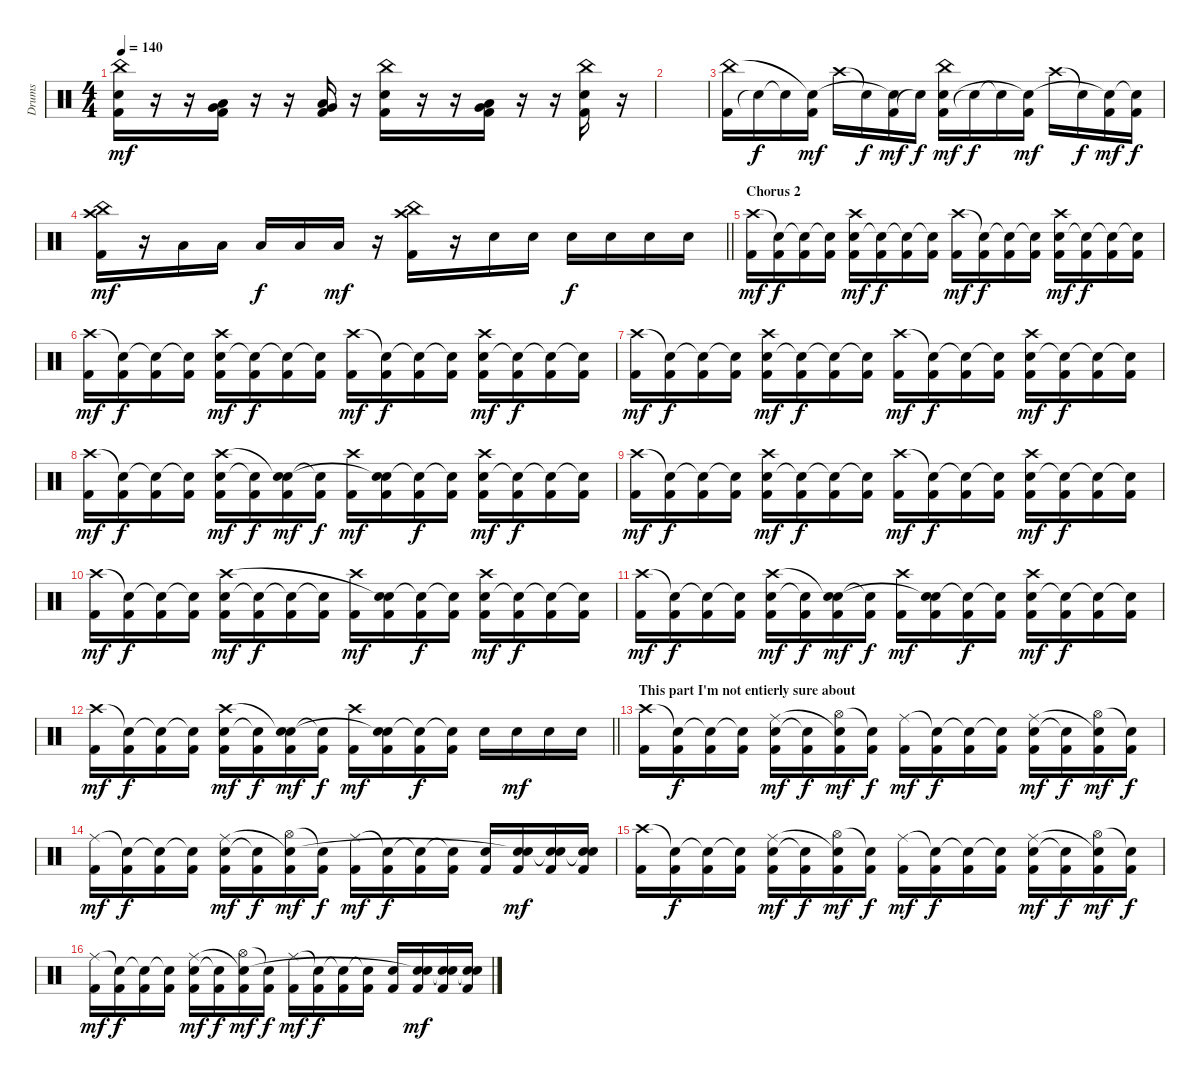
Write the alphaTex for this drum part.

\track ("Drums" "Drums") {instrument percussion}
\staff {score}
\articulation defaults
\ts (4 4)
\tempo 140
\clef neutral
\ks c
("Kick (hit) 2" "Snare (hit) 2" "China (hit)").16{dy mf} r.16 r.16 ("Kick (hit) 2" "Low Tom (hit)" "Very Low Tom (hit)").16 r.16 r.16 ("Kick (hit) 2" "Low Tom (hit)" "Very Low Tom (hit)").16 r.16 ("Kick (hit) 2" "Snare (hit) 2" "China (hit)").16 r.16 r.16 ("Kick (hit) 2" "Low Tom (hit)" "Very Low Tom (hit)").16 r.16 r.16 ("Kick (hit) 2" "Snare (hit) 2" "China (hit)").16 r.16 |
|
("Kick (hit) 2" "China (hit)").16 "Snare (hit)"{t}.16{dy f} "Snare (hit)"{t}.16 ("Kick (hit) 2" "Snare (hit)"{t}).16{dy mf} "Crash high (hit)".16 "Snare (hit)"{t}.16{dy f} ("Kick (hit) 2" "Snare (hit)"{t}).16{dy mf} "Snare (hit)"{t}.16{dy f} ("Kick (hit) 2" "Snare (hit) 2" "China (hit)").16{dy mf} "Snare (hit)"{t}.16{dy f} "Snare (hit)"{t}.16 ("Kick (hit) 2" "Snare (hit)"{t}).16{dy mf} "Crash high (hit)".16 "Snare (hit)"{t}.16{dy f} ("Kick (hit) 2" "Snare (hit)"{t}).16{dy mf} ("Kick (hit) 2" "Snare (hit)"{t}).16{dy f} |
\barLineRight lightlight
("Kick (hit) 2" "Crash high (hit)" "China (hit)").16{dy mf} r.16 "Low Tom (hit)".16 "Low Tom (hit)".16 "Low Tom (hit)".16{dy f} "Low Tom (hit)".16 "Low Tom (hit)".16{dy mf} r.16 ("Kick (hit) 2" "Crash high (hit)" "China (hit)").16 r.16 "Snare (hit) 2".16 "Snare (hit) 2".16 "Snare (hit) 2".16{dy f} "Snare (hit) 2".16 "Snare (hit) 2".16 "Snare (hit) 2".16 |
\section ("" "Chorus 2")
("Kick (hit) 2" "Crash high (hit)").16{dy mf} ("Kick (hit) 2" "Snare (hit)"{t}).16{dy f} ("Kick (hit) 2" "Snare (hit)"{t}).16 ("Kick (hit) 2" "Snare (hit)"{t}).16 ("Kick (hit) 2" "Snare (hit) 2" "Crash high (hit)").16{dy mf} ("Kick (hit) 2" "Snare (hit)"{t}).16{dy f} ("Kick (hit) 2" "Snare (hit)"{t}).16 ("Kick (hit) 2" "Snare (hit)"{t}).16 ("Kick (hit) 2" "Crash high (hit)").16{dy mf} ("Kick (hit) 2" "Snare (hit)"{t}).16{dy f} ("Kick (hit) 2" "Snare (hit)"{t}).16 ("Kick (hit) 2" "Snare (hit)"{t}).16 ("Kick (hit) 2" "Snare (hit) 2" "Crash high (hit)").16{dy mf} ("Kick (hit) 2" "Snare (hit)"{t}).16{dy f} ("Kick (hit) 2" "Snare (hit)"{t}).16 ("Kick (hit) 2" "Snare (hit)"{t}).16 |
("Kick (hit) 2" "Crash high (hit)").16{dy mf} ("Kick (hit) 2" "Snare (hit)"{t}).16{dy f} ("Kick (hit) 2" "Snare (hit)"{t}).16 ("Kick (hit) 2" "Snare (hit)"{t}).16 ("Kick (hit) 2" "Snare (hit) 2" "Crash high (hit)").16{dy mf} ("Kick (hit) 2" "Snare (hit)"{t}).16{dy f} ("Kick (hit) 2" "Snare (hit)"{t}).16 ("Kick (hit) 2" "Snare (hit)"{t}).16 ("Kick (hit) 2" "Crash high (hit)").16{dy mf} ("Kick (hit) 2" "Snare (hit)"{t}).16{dy f} ("Kick (hit) 2" "Snare (hit)"{t}).16 ("Kick (hit) 2" "Snare (hit)"{t}).16 ("Kick (hit) 2" "Snare (hit) 2" "Crash high (hit)").16{dy mf} ("Kick (hit) 2" "Snare (hit)"{t}).16{dy f} ("Kick (hit) 2" "Snare (hit)"{t}).16 ("Kick (hit) 2" "Snare (hit)"{t}).16 |
("Kick (hit) 2" "Crash high (hit)").16{dy mf} ("Kick (hit) 2" "Snare (hit)"{t}).16{dy f} ("Kick (hit) 2" "Snare (hit)"{t}).16 ("Kick (hit) 2" "Snare (hit)"{t}).16 ("Kick (hit) 2" "Snare (hit) 2" "Crash high (hit)").16{dy mf} ("Kick (hit) 2" "Snare (hit)"{t}).16{dy f} ("Kick (hit) 2" "Snare (hit)"{t}).16 ("Kick (hit) 2" "Snare (hit)"{t}).16 ("Kick (hit) 2" "Crash high (hit)").16{dy mf} ("Kick (hit) 2" "Snare (hit)"{t}).16{dy f} ("Kick (hit) 2" "Snare (hit)"{t}).16 ("Kick (hit) 2" "Snare (hit)"{t}).16 ("Kick (hit) 2" "Snare (hit) 2" "Crash high (hit)").16{dy mf} ("Kick (hit) 2" "Snare (hit)"{t}).16{dy f} ("Kick (hit) 2" "Snare (hit)"{t}).16 ("Kick (hit) 2" "Snare (hit)"{t}).16 |
("Kick (hit) 2" "Crash high (hit)").16{dy mf} ("Kick (hit) 2" "Snare (hit)"{t}).16{dy f} ("Kick (hit) 2" "Snare (hit)"{t}).16 ("Kick (hit) 2" "Snare (hit)"{t}).16 ("Kick (hit) 2" "Snare (hit) 2" "Crash high (hit)").16{dy mf} ("Kick (hit) 2" "Snare (hit)"{t}).16{dy f} ("Kick (hit) 2" "Snare (hit) 2" "Snare (hit)"{t}).16{dy mf} ("Kick (hit) 2" "Snare (hit)"{t}).16{dy f} ("Kick (hit) 2" "Crash high (hit)").16{dy mf} ("Kick (hit) 2" "Snare (hit) 2" "Snare (hit)"{t}).16 ("Kick (hit) 2" "Snare (hit)"{t}).16{dy f} ("Kick (hit) 2" "Snare (hit)"{t}).16 ("Kick (hit) 2" "Snare (hit) 2" "Crash high (hit)").16{dy mf} ("Kick (hit) 2" "Snare (hit)"{t}).16{dy f} ("Kick (hit) 2" "Snare (hit)"{t}).16 ("Kick (hit) 2" "Snare (hit)"{t}).16 |
("Kick (hit) 2" "Crash high (hit)").16{dy mf} ("Kick (hit) 2" "Snare (hit)"{t}).16{dy f} ("Kick (hit) 2" "Snare (hit)"{t}).16 ("Kick (hit) 2" "Snare (hit)"{t}).16 ("Kick (hit) 2" "Snare (hit) 2" "Crash high (hit)").16{dy mf} ("Kick (hit) 2" "Snare (hit)"{t}).16{dy f} ("Kick (hit) 2" "Snare (hit)"{t}).16 ("Kick (hit) 2" "Snare (hit)"{t}).16 ("Kick (hit) 2" "Crash high (hit)").16{dy mf} ("Kick (hit) 2" "Snare (hit)"{t}).16{dy f} ("Kick (hit) 2" "Snare (hit)"{t}).16 ("Kick (hit) 2" "Snare (hit)"{t}).16 ("Kick (hit) 2" "Snare (hit) 2" "Crash high (hit)").16{dy mf} ("Kick (hit) 2" "Snare (hit)"{t}).16{dy f} ("Kick (hit) 2" "Snare (hit)"{t}).16 ("Kick (hit) 2" "Snare (hit)"{t}).16 |
("Kick (hit) 2" "Crash high (hit)").16{dy mf} ("Kick (hit) 2" "Snare (hit)"{t}).16{dy f} ("Kick (hit) 2" "Snare (hit)"{t}).16 ("Kick (hit) 2" "Snare (hit)"{t}).16 ("Kick (hit) 2" "Snare (hit) 2" "Crash high (hit)").16{dy mf} ("Kick (hit) 2" "Snare (hit)"{t}).16{dy f} ("Kick (hit) 2" "Snare (hit)"{t}).16 ("Kick (hit) 2" "Snare (hit)"{t}).16 ("Kick (hit) 2" "Crash high (hit)").16{dy mf} ("Kick (hit) 2" "Snare (hit) 2" "Snare (hit)"{t}).16 ("Kick (hit) 2" "Snare (hit)"{t}).16{dy f} ("Kick (hit) 2" "Snare (hit)"{t}).16 ("Kick (hit) 2" "Snare (hit) 2" "Crash high (hit)").16{dy mf} ("Kick (hit) 2" "Snare (hit)"{t}).16{dy f} ("Kick (hit) 2" "Snare (hit)"{t}).16 ("Kick (hit) 2" "Snare (hit)"{t}).16 |
("Kick (hit) 2" "Crash high (hit)").16{dy mf} ("Kick (hit) 2" "Snare (hit)"{t}).16{dy f} ("Kick (hit) 2" "Snare (hit)"{t}).16 ("Kick (hit) 2" "Snare (hit)"{t}).16 ("Kick (hit) 2" "Snare (hit) 2" "Crash high (hit)").16{dy mf} ("Kick (hit) 2" "Snare (hit)"{t}).16{dy f} ("Kick (hit) 2" "Snare (hit) 2" "Snare (hit)"{t}).16{dy mf} ("Kick (hit) 2" "Snare (hit)"{t}).16{dy f} ("Kick (hit) 2" "Crash high (hit)").16{dy mf} ("Kick (hit) 2" "Snare (hit) 2" "Snare (hit)"{t}).16 ("Kick (hit) 2" "Snare (hit)"{t}).16{dy f} ("Kick (hit) 2" "Snare (hit)"{t}).16 ("Kick (hit) 2" "Snare (hit) 2" "Crash high (hit)").16{dy mf} ("Kick (hit) 2" "Snare (hit)"{t}).16{dy f} ("Kick (hit) 2" "Snare (hit)"{t}).16 ("Kick (hit) 2" "Snare (hit)"{t}).16 |
\barLineRight lightlight
("Kick (hit) 2" "Crash high (hit)").16{dy mf} ("Kick (hit) 2" "Snare (hit)"{t}).16{dy f} ("Kick (hit) 2" "Snare (hit)"{t}).16 ("Kick (hit) 2" "Snare (hit)"{t}).16 ("Kick (hit) 2" "Snare (hit) 2" "Crash high (hit)").16{dy mf} ("Kick (hit) 2" "Snare (hit)"{t}).16{dy f} ("Kick (hit) 2" "Snare (hit) 2" "Snare (hit)"{t}).16{dy mf} ("Kick (hit) 2" "Snare (hit)"{t}).16{dy f} ("Kick (hit) 2" "Crash high (hit)").16{dy mf} ("Kick (hit) 2" "Snare (hit) 2" "Snare (hit)"{t}).16 ("Kick (hit) 2" "Snare (hit)"{t}).16{dy f} ("Kick (hit) 2" "Snare (hit)"{t}).16 "Snare (hit) 2".16 "Snare (hit) 2".16{dy mf} "Snare (hit) 2".16 "Snare (hit) 2".16 |
\section ("" "This part I'm not entierly sure about")
("Kick (hit) 2" "Crash high (hit)").16 ("Kick (hit) 2" "Snare (hit)"{t}).16{dy f} ("Kick (hit) 2" "Snare (hit)"{t}).16 ("Kick (hit) 2" "Snare (hit)"{t}).16 ("Kick (hit) 2" "Snare (hit) 2" "Ride (middle)").16{dy mf} ("Kick (hit) 2" "Snare (hit)"{t}).16{dy f} ("Kick (hit) 2" "Hi-Hat (open)" "Snare (hit)"{t}).16{dy mf} ("Kick (hit) 2" "Snare (hit)"{t}).16{dy f} ("Kick (hit) 2" "Ride (middle)").16{dy mf} ("Kick (hit) 2" "Snare (hit)"{t}).16{dy f} ("Kick (hit) 2" "Snare (hit)"{t}).16 ("Kick (hit) 2" "Snare (hit)"{t}).16 ("Kick (hit) 2" "Snare (hit) 2" "Ride (middle)").16{dy mf} ("Kick (hit) 2" "Snare (hit)"{t}).16{dy f} ("Kick (hit) 2" "Hi-Hat (open)" "Snare (hit)"{t}).16{dy mf} ("Kick (hit) 2" "Snare (hit)"{t}).16{dy f} |
("Kick (hit) 2" "Ride (middle)").16{dy mf} ("Kick (hit) 2" "Snare (hit)"{t}).16{dy f} ("Kick (hit) 2" "Snare (hit)"{t}).16 ("Kick (hit) 2" "Snare (hit)"{t}).16 ("Kick (hit) 2" "Snare (hit) 2" "Ride (middle)").16{dy mf} ("Kick (hit) 2" "Snare (hit)"{t}).16{dy f} ("Kick (hit) 2" "Hi-Hat (open)" "Snare (hit)"{t}).16{dy mf} ("Kick (hit) 2" "Snare (hit)"{t}).16{dy f} ("Kick (hit) 2" "Ride (middle)").16{dy mf} ("Kick (hit) 2" "Snare (hit)"{t}).16{dy f} ("Kick (hit) 2" "Snare (hit)"{t}).16 ("Kick (hit) 2" "Snare (hit)"{t}).16 ("Kick (hit) 2" "Snare (hit) 2").16 ("Kick (hit) 2" "Snare (hit) 2" "Snare (hit)"{t}).16{dy mf} ("Kick (hit) 2" "Snare (hit) 2" "Snare (hit)"{t}).16 ("Kick (hit) 2" "Snare (hit) 2" "Snare (hit)"{t}).16 |
("Kick (hit) 2" "Crash high (hit)").16 ("Kick (hit) 2" "Snare (hit)"{t}).16{dy f} ("Kick (hit) 2" "Snare (hit)"{t}).16 ("Kick (hit) 2" "Snare (hit)"{t}).16 ("Kick (hit) 2" "Snare (hit) 2" "Ride (middle)").16{dy mf} ("Kick (hit) 2" "Snare (hit)"{t}).16{dy f} ("Kick (hit) 2" "Hi-Hat (open)" "Snare (hit)"{t}).16{dy mf} ("Kick (hit) 2" "Snare (hit)"{t}).16{dy f} ("Kick (hit) 2" "Ride (middle)").16{dy mf} ("Kick (hit) 2" "Snare (hit)"{t}).16{dy f} ("Kick (hit) 2" "Snare (hit)"{t}).16 ("Kick (hit) 2" "Snare (hit)"{t}).16 ("Kick (hit) 2" "Snare (hit) 2" "Ride (middle)").16{dy mf} ("Kick (hit) 2" "Snare (hit)"{t}).16{dy f} ("Kick (hit) 2" "Hi-Hat (open)" "Snare (hit)"{t}).16{dy mf} ("Kick (hit) 2" "Snare (hit)"{t}).16{dy f} |
("Kick (hit) 2" "Ride (middle)").16{dy mf} ("Kick (hit) 2" "Snare (hit)"{t}).16{dy f} ("Kick (hit) 2" "Snare (hit)"{t}).16 ("Kick (hit) 2" "Snare (hit)"{t}).16 ("Kick (hit) 2" "Snare (hit) 2" "Ride (middle)").16{dy mf} ("Kick (hit) 2" "Snare (hit)"{t}).16{dy f} ("Kick (hit) 2" "Hi-Hat (open)" "Snare (hit)"{t}).16{dy mf} ("Kick (hit) 2" "Snare (hit)"{t}).16{dy f} ("Kick (hit) 2" "Ride (middle)").16{dy mf} ("Kick (hit) 2" "Snare (hit)"{t}).16{dy f} ("Kick (hit) 2" "Snare (hit)"{t}).16 ("Kick (hit) 2" "Snare (hit)"{t}).16 ("Kick (hit) 2" "Snare (hit) 2").16 ("Kick (hit) 2" "Snare (hit) 2" "Snare (hit)"{t}).16{dy mf} ("Kick (hit) 2" "Snare (hit) 2" "Snare (hit)"{t}).16 ("Kick (hit) 2" "Snare (hit) 2" "Snare (hit)"{t}).16
